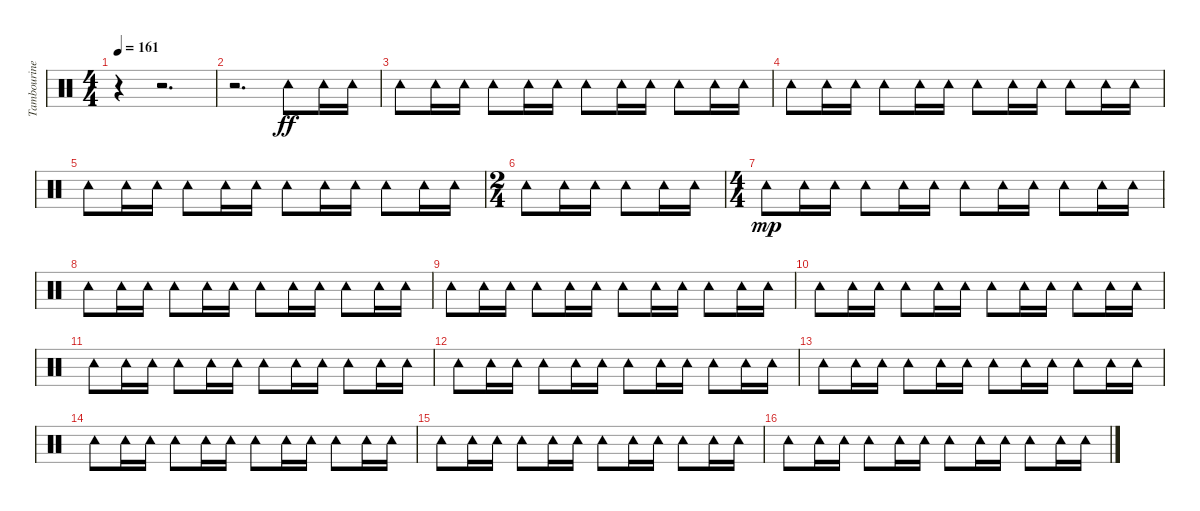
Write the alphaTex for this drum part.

\track ("Tambourine" "Tambourine") {instrument percussion}
\staff {score}
\articulation defaults
\ts (4 4)
\tempo 161
\clef neutral
\ks c
r.4{dy ff} r.2{d} |
r.2{d} "Tambourine (hit)".8 "Tambourine (hit)".16 "Tambourine (hit)".16 |
"Tambourine (hit)".8 "Tambourine (hit)".16 "Tambourine (hit)".16 "Tambourine (hit)".8 "Tambourine (hit)".16 "Tambourine (hit)".16 "Tambourine (hit)".8 "Tambourine (hit)".16 "Tambourine (hit)".16 "Tambourine (hit)".8 "Tambourine (hit)".16 "Tambourine (hit)".16 |
"Tambourine (hit)".8 "Tambourine (hit)".16 "Tambourine (hit)".16 "Tambourine (hit)".8 "Tambourine (hit)".16 "Tambourine (hit)".16 "Tambourine (hit)".8 "Tambourine (hit)".16 "Tambourine (hit)".16 "Tambourine (hit)".8 "Tambourine (hit)".16 "Tambourine (hit)".16 |
"Tambourine (hit)".8 "Tambourine (hit)".16 "Tambourine (hit)".16 "Tambourine (hit)".8 "Tambourine (hit)".16 "Tambourine (hit)".16 "Tambourine (hit)".8 "Tambourine (hit)".16 "Tambourine (hit)".16 "Tambourine (hit)".8 "Tambourine (hit)".16 "Tambourine (hit)".16 |
\ts (2 4)
"Tambourine (hit)".8 "Tambourine (hit)".16 "Tambourine (hit)".16 "Tambourine (hit)".8 "Tambourine (hit)".16 "Tambourine (hit)".16 |
\ts (4 4)
"Tambourine (hit)".8{dy mp} "Tambourine (hit)".16 "Tambourine (hit)".16 "Tambourine (hit)".8 "Tambourine (hit)".16 "Tambourine (hit)".16 "Tambourine (hit)".8 "Tambourine (hit)".16 "Tambourine (hit)".16 "Tambourine (hit)".8 "Tambourine (hit)".16 "Tambourine (hit)".16 |
"Tambourine (hit)".8 "Tambourine (hit)".16 "Tambourine (hit)".16 "Tambourine (hit)".8 "Tambourine (hit)".16 "Tambourine (hit)".16 "Tambourine (hit)".8 "Tambourine (hit)".16 "Tambourine (hit)".16 "Tambourine (hit)".8 "Tambourine (hit)".16 "Tambourine (hit)".16 |
"Tambourine (hit)".8 "Tambourine (hit)".16 "Tambourine (hit)".16 "Tambourine (hit)".8 "Tambourine (hit)".16 "Tambourine (hit)".16 "Tambourine (hit)".8 "Tambourine (hit)".16 "Tambourine (hit)".16 "Tambourine (hit)".8 "Tambourine (hit)".16 "Tambourine (hit)".16 |
"Tambourine (hit)".8 "Tambourine (hit)".16 "Tambourine (hit)".16 "Tambourine (hit)".8 "Tambourine (hit)".16 "Tambourine (hit)".16 "Tambourine (hit)".8 "Tambourine (hit)".16 "Tambourine (hit)".16 "Tambourine (hit)".8 "Tambourine (hit)".16 "Tambourine (hit)".16 |
"Tambourine (hit)".8 "Tambourine (hit)".16 "Tambourine (hit)".16 "Tambourine (hit)".8 "Tambourine (hit)".16 "Tambourine (hit)".16 "Tambourine (hit)".8 "Tambourine (hit)".16 "Tambourine (hit)".16 "Tambourine (hit)".8 "Tambourine (hit)".16 "Tambourine (hit)".16 |
"Tambourine (hit)".8 "Tambourine (hit)".16 "Tambourine (hit)".16 "Tambourine (hit)".8 "Tambourine (hit)".16 "Tambourine (hit)".16 "Tambourine (hit)".8 "Tambourine (hit)".16 "Tambourine (hit)".16 "Tambourine (hit)".8 "Tambourine (hit)".16 "Tambourine (hit)".16 |
"Tambourine (hit)".8 "Tambourine (hit)".16 "Tambourine (hit)".16 "Tambourine (hit)".8 "Tambourine (hit)".16 "Tambourine (hit)".16 "Tambourine (hit)".8 "Tambourine (hit)".16 "Tambourine (hit)".16 "Tambourine (hit)".8 "Tambourine (hit)".16 "Tambourine (hit)".16 |
"Tambourine (hit)".8 "Tambourine (hit)".16 "Tambourine (hit)".16 "Tambourine (hit)".8 "Tambourine (hit)".16 "Tambourine (hit)".16 "Tambourine (hit)".8 "Tambourine (hit)".16 "Tambourine (hit)".16 "Tambourine (hit)".8 "Tambourine (hit)".16 "Tambourine (hit)".16 |
"Tambourine (hit)".8 "Tambourine (hit)".16 "Tambourine (hit)".16 "Tambourine (hit)".8 "Tambourine (hit)".16 "Tambourine (hit)".16 "Tambourine (hit)".8 "Tambourine (hit)".16 "Tambourine (hit)".16 "Tambourine (hit)".8 "Tambourine (hit)".16 "Tambourine (hit)".16 |
"Tambourine (hit)".8 "Tambourine (hit)".16 "Tambourine (hit)".16 "Tambourine (hit)".8 "Tambourine (hit)".16 "Tambourine (hit)".16 "Tambourine (hit)".8 "Tambourine (hit)".16 "Tambourine (hit)".16 "Tambourine (hit)".8 "Tambourine (hit)".16 "Tambourine (hit)".16
